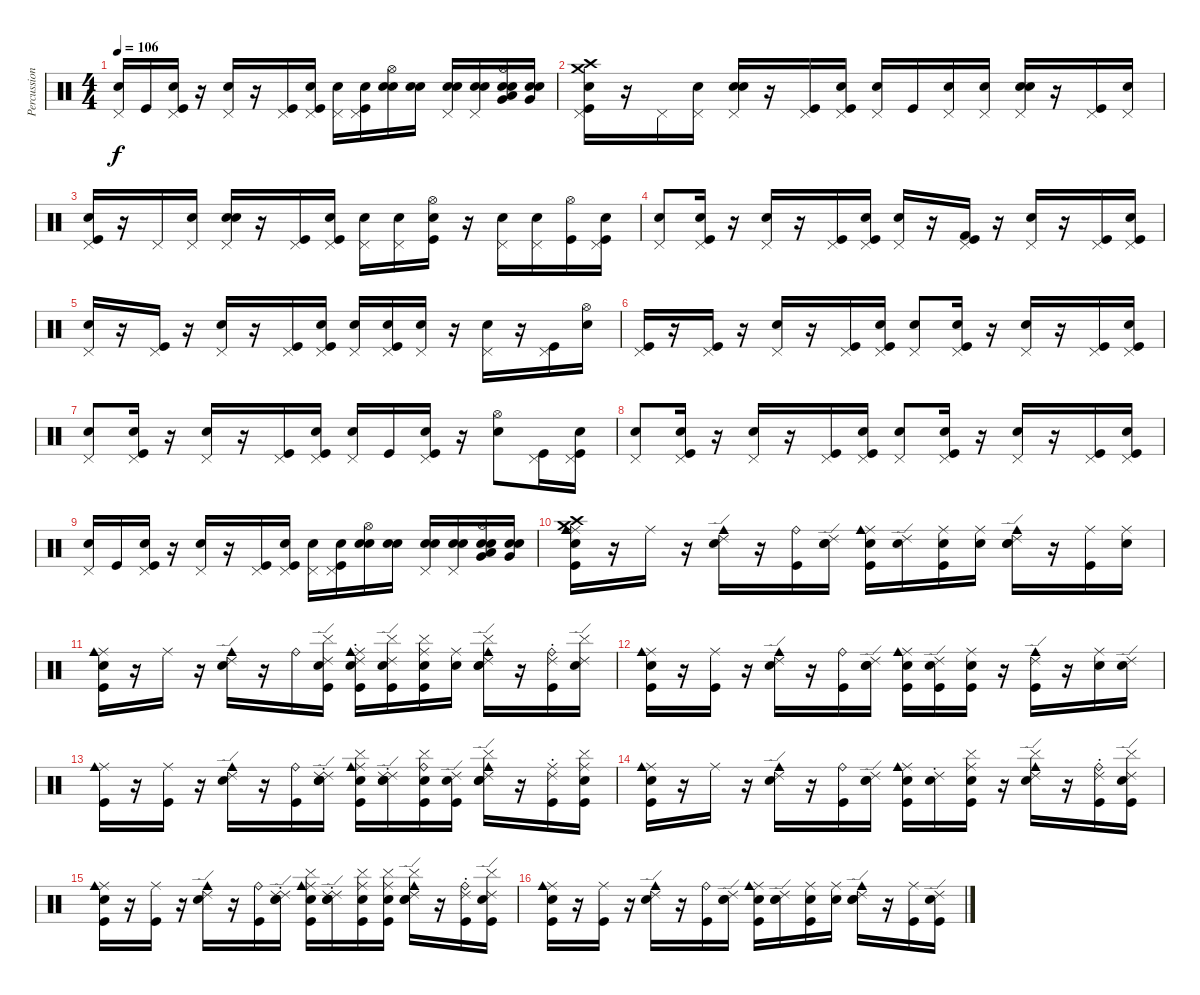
\track ("Percussions (Zaac)" "Percussion") {instrument percussion}
\staff {score}
\articulation defaults
\ts (4 4)
\tempo 106
\clef neutral
\ks c
("Snare (hit)" "Pedal Hi-Hat (hit)").16{dy f} "Kick (hit)".16 ("Snare (hit)" "Kick (hit)" "Pedal Hi-Hat (hit)").16 r.16 ("Electric Snare (hit)" "Pedal Hi-Hat (hit)").16 r.16 ("Kick (hit)" "Pedal Hi-Hat (hit)").16 ("Snare (hit)" "Kick (hit)" "Pedal Hi-Hat (hit)").16 ("Snare (hit)" "Pedal Hi-Hat (hit)").16 ("Snare (hit)" "Kick (hit)" "Pedal Hi-Hat (hit)").16 ("Snare (hit)" "Electric Snare (hit)" "Hi-Hat (open)").16 ("Snare (hit)" "Electric Snare (hit)").16 ("Snare (hit)" "Electric Snare (hit)" "Pedal Hi-Hat (hit)").16 ("Snare (hit)" "Electric Snare (hit)" "Pedal Hi-Hat (hit)").16 ("Snare (hit)" "Electric Snare (hit)" "Very Low Tom (hit)" "Low Tom (hit)" "Hi-Hat (open)").16 ("Snare (hit)" "Electric Snare (hit)" "Very Low Tom (hit)").16 |
("Snare (hit)" "Kick (hit)" "Pedal Hi-Hat (hit)" "Crash high (hit)" "Crash medium (hit)").16 r.16 "Pedal Hi-Hat (hit)".16 ("Snare (hit)" "Pedal Hi-Hat (hit)").16 ("Snare (hit)" "Electric Snare (hit)" "Pedal Hi-Hat (hit)").16 r.16 ("Kick (hit)" "Pedal Hi-Hat (hit)").16 ("Snare (hit)" "Kick (hit)" "Pedal Hi-Hat (hit)").16 ("Snare (hit)" "Pedal Hi-Hat (hit)").16 "Kick (hit)".16 ("Snare (hit)" "Pedal Hi-Hat (hit)").16 ("Snare (hit)" "Pedal Hi-Hat (hit)").16 ("Snare (hit)" "Electric Snare (hit)" "Pedal Hi-Hat (hit)").16 r.16 ("Kick (hit)" "Pedal Hi-Hat (hit)").16 ("Snare (hit)" "Pedal Hi-Hat (hit)").16 |
("Snare (hit)" "Kick (hit)" "Pedal Hi-Hat (hit)").16 r.16 "Pedal Hi-Hat (hit)".16 ("Snare (hit)" "Pedal Hi-Hat (hit)").16 ("Snare (hit)" "Electric Snare (hit)" "Pedal Hi-Hat (hit)").16 r.16 ("Kick (hit)" "Pedal Hi-Hat (hit)").16 ("Snare (hit)" "Kick (hit)" "Pedal Hi-Hat (hit)").16 ("Snare (hit)" "Pedal Hi-Hat (hit)").16 ("Snare (hit)" "Pedal Hi-Hat (hit)").16 ("Snare (hit)" "Kick (hit)" "Hi-Hat (open)").16 r.16 ("Electric Snare (hit)" "Pedal Hi-Hat (hit)").16 ("Snare (hit)" "Pedal Hi-Hat (hit)").16 ("Kick (hit)" "Hi-Hat (open)").16 ("Snare (hit)" "Kick (hit)" "Pedal Hi-Hat (hit)").16 |
("Snare (hit)" "Pedal Hi-Hat (hit)").8 ("Snare (hit)" "Kick (hit)" "Pedal Hi-Hat (hit)").16 r.16 ("Electric Snare (hit)" "Pedal Hi-Hat (hit)").16 r.16 ("Kick (hit)" "Pedal Hi-Hat (hit)").16 ("Snare (hit)" "Kick (hit)" "Pedal Hi-Hat (hit)").16 ("Snare (hit)" "Pedal Hi-Hat (hit)").16 r.16 ("Kick (hit)" "Kick (hit) 2" "Pedal Hi-Hat (hit)").16 r.16 ("Electric Snare (hit)" "Pedal Hi-Hat (hit)").16 r.16 ("Kick (hit)" "Pedal Hi-Hat (hit)").16 ("Snare (hit)" "Kick (hit)" "Pedal Hi-Hat (hit)").16 |
("Snare (hit)" "Pedal Hi-Hat (hit)").16 r.16 ("Kick (hit)" "Pedal Hi-Hat (hit)").16 r.16 ("Electric Snare (hit)" "Pedal Hi-Hat (hit)").16 r.16 ("Kick (hit)" "Pedal Hi-Hat (hit)").16 ("Snare (hit)" "Kick (hit)" "Pedal Hi-Hat (hit)").16 ("Snare (hit)" "Pedal Hi-Hat (hit)").16 ("Snare (hit)" "Kick (hit)" "Pedal Hi-Hat (hit)").16 ("Snare (hit)" "Pedal Hi-Hat (hit)").16 r.16 ("Electric Snare (hit)" "Pedal Hi-Hat (hit)").16 r.16 ("Kick (hit)" "Pedal Hi-Hat (hit)").16 ("Snare (hit)" "Hi-Hat (open)").16 |
("Kick (hit)" "Pedal Hi-Hat (hit)").16 r.16 ("Kick (hit)" "Pedal Hi-Hat (hit)").16 r.16 ("Electric Snare (hit)" "Pedal Hi-Hat (hit)").16 r.16 ("Kick (hit)" "Pedal Hi-Hat (hit)").16 ("Snare (hit)" "Kick (hit)" "Pedal Hi-Hat (hit)").16 ("Snare (hit)" "Pedal Hi-Hat (hit)").8 ("Snare (hit)" "Kick (hit)" "Pedal Hi-Hat (hit)").16 r.16 ("Electric Snare (hit)" "Pedal Hi-Hat (hit)").16 r.16 ("Kick (hit)" "Pedal Hi-Hat (hit)").16 ("Snare (hit)" "Kick (hit)" "Pedal Hi-Hat (hit)").16 |
("Snare (hit)" "Pedal Hi-Hat (hit)").8 ("Snare (hit)" "Kick (hit)" "Pedal Hi-Hat (hit)").16 r.16 ("Electric Snare (hit)" "Pedal Hi-Hat (hit)").16 r.16 ("Kick (hit)" "Pedal Hi-Hat (hit)").16 ("Snare (hit)" "Kick (hit)" "Pedal Hi-Hat (hit)").16 ("Snare (hit)" "Pedal Hi-Hat (hit)").16 "Kick (hit)".16 ("Snare (hit)" "Kick (hit)" "Pedal Hi-Hat (hit)").16 r.16 ("Electric Snare (hit)" "Hi-Hat (open)").8 ("Kick (hit)" "Pedal Hi-Hat (hit)").16 ("Snare (hit)" "Kick (hit)" "Pedal Hi-Hat (hit)").16 |
("Snare (hit)" "Pedal Hi-Hat (hit)").8 ("Snare (hit)" "Kick (hit)" "Pedal Hi-Hat (hit)").16 r.16 ("Electric Snare (hit)" "Pedal Hi-Hat (hit)").16 r.16 ("Kick (hit)" "Pedal Hi-Hat (hit)").16 ("Snare (hit)" "Kick (hit)" "Pedal Hi-Hat (hit)").16 ("Snare (hit)" "Pedal Hi-Hat (hit)").8 ("Snare (hit)" "Kick (hit)" "Pedal Hi-Hat (hit)").16 r.16 ("Electric Snare (hit)" "Pedal Hi-Hat (hit)").16 r.16 ("Kick (hit)" "Pedal Hi-Hat (hit)").16 ("Snare (hit)" "Kick (hit)" "Pedal Hi-Hat (hit)").16 |
("Snare (hit)" "Pedal Hi-Hat (hit)").16 "Kick (hit)".16 ("Snare (hit)" "Kick (hit)" "Pedal Hi-Hat (hit)").16 r.16 ("Electric Snare (hit)" "Pedal Hi-Hat (hit)").16 r.16 ("Kick (hit)" "Pedal Hi-Hat (hit)").16 ("Snare (hit)" "Kick (hit)" "Pedal Hi-Hat (hit)").16 ("Snare (hit)" "Pedal Hi-Hat (hit)").16 ("Snare (hit)" "Kick (hit)" "Pedal Hi-Hat (hit)").16 ("Snare (hit)" "Electric Snare (hit)" "Hi-Hat (open)").16 ("Snare (hit)" "Electric Snare (hit)").16 ("Snare (hit)" "Electric Snare (hit)" "Pedal Hi-Hat (hit)").16 ("Snare (hit)" "Electric Snare (hit)" "Pedal Hi-Hat (hit)").16 ("Snare (hit)" "Electric Snare (hit)" "Very Low Tom (hit)" "Low Tom (hit)" "Hi-Hat (open)").16 ("Snare (hit)" "Electric Snare (hit)" "Very Low Tom (hit)").16 |
("Snare (hit)" "Kick (hit)" "Crash high (hit)" "Ride (middle)" "Cowbell medium (hit)" "Crash medium (hit)").16{volume 8} r.16 "Ride (middle)".16 r.16 ("Electric Snare (hit)" "Cowbell medium (hit)" "Ride (edge) 2").16 r.16 ("Kick (hit)" "Ride (bell)").16 ("Snare (hit)" "Electric Snare (hit)" "Ride (edge) 2").16 ("Snare (hit)" "Kick (hit)" "Ride (middle)" "Cowbell medium (hit)").16 ("Snare (hit)" "Ride (edge) 2").16 ("Snare (hit)" "Kick (hit)" "Ride (middle)").16 ("Snare (hit)" "Ride (middle)").16 ("Snare (hit)" "Electric Snare (hit)" "Cowbell medium (hit)" "Ride (edge) 2").16 r.16 ("Kick (hit)" "Ride (middle)").16 ("Snare (hit)" "Ride (middle)").16 |
("Snare (hit)" "Kick (hit)" "Ride (middle)" "Cowbell medium (hit)").16 r.16 "Ride (middle)".16 r.16 ("Electric Snare (hit)" "Cowbell medium (hit)" "Ride (edge) 2").16 r.16 "Ride (bell)".16 ("Snare (hit)" "Cymbal (hit)" "Kick (hit)" "Ride (edge) 2").16 ("Snare (hit)" "Ride (choke) 2" "Kick (hit)" "Ride (middle)" "Cowbell medium (hit)").16 ("Snare (hit)" "Cymbal (hit)" "Kick (hit)" "Ride (edge) 2").16 ("Snare (hit)" "Cymbal (hit)" "Kick (hit)" "Ride (middle)").16 ("Snare (hit)" "Ride (middle)").16 ("Snare (hit)" "Cymbal (hit)" "Electric Snare (hit)" "Cowbell medium (hit)" "Ride (edge) 2").16 r.16 ("Ride (choke) 2" "Kick (hit)" "Ride (bell)").16 ("Snare (hit)" "Cymbal (hit)" "Ride (edge) 2").16 |
("Snare (hit)" "Kick (hit)" "Ride (middle)" "Cowbell medium (hit)").16 r.16 ("Kick (hit)" "Ride (middle)").16 r.16 ("Electric Snare (hit)" "Cowbell medium (hit)" "Ride (edge) 2").16 r.16 ("Kick (hit)" "Ride (bell)").16 ("Snare (hit)" "Electric Snare (hit)" "Ride (edge) 2").16 ("Snare (hit)" "Kick (hit)" "Ride (middle)" "Cowbell medium (hit)").16 ("Snare (hit)" "Kick (hit)" "Ride (edge) 2").16 ("Snare (hit)" "Kick (hit)" "Ride (middle)").16 r.16 ("Kick (hit)" "Cowbell medium (hit)" "Ride (edge) 2").16 r.16 ("Electric Snare (hit)" "Ride (middle)").16 ("Snare (hit)" "Ride (edge) 2").16 |
("Kick (hit)" "Ride (middle)" "Cowbell medium (hit)").16 r.16 ("Kick (hit)" "Ride (middle)").16 r.16 ("Electric Snare (hit)" "Cowbell medium (hit)" "Ride (edge) 2").16 r.16 ("Kick (hit)" "Ride (bell)").16 ("Snare (hit)" "Ride (choke) 2" "Electric Snare (hit)" "Ride (edge) 2").16 ("Snare (hit)" "Cymbal (hit)" "Kick (hit)" "Ride (middle)" "Cowbell medium (hit)").16 ("Snare (hit)" "Ride (choke) 2" "Electric Snare (hit)" "Ride (edge) 2").16 ("Snare (hit)" "Cymbal (hit)" "Kick (hit)" "Ride (bell)").16 ("Snare (hit)" "Kick (hit)" "Ride (edge) 2").16 ("Snare (hit)" "Cymbal (hit)" "Electric Snare (hit)" "Cowbell medium (hit)" "Ride (edge) 2").16 r.16 ("Ride (choke) 2" "Kick (hit)" "Ride (middle)").16 ("Snare (hit)" "Cymbal (hit)" "Kick (hit)" "Ride (middle)").16 |
("Snare (hit)" "Kick (hit)" "Ride (middle)" "Cowbell medium (hit)").16 r.16 "Ride (middle)".16 r.16 ("Electric Snare (hit)" "Cowbell medium (hit)" "Ride (edge) 2").16 r.16 ("Kick (hit)" "Ride (bell)").16 ("Snare (hit)" "Electric Snare (hit)" "Ride (edge) 2").16 ("Snare (hit)" "Kick (hit)" "Ride (middle)" "Cowbell medium (hit)").16 ("Snare (hit)" "Ride (choke) 2").16 ("Snare (hit)" "Cymbal (hit)" "Kick (hit)" "Ride (middle)").16 r.16 ("Cymbal (hit)" "Electric Snare (hit)" "Cowbell medium (hit)" "Ride (edge) 2").16 r.16 ("Ride (choke) 2" "Kick (hit)" "Ride (bell)").16 ("Snare (hit)" "Cymbal (hit)" "Kick (hit)" "Ride (edge) 2").16 |
("Snare (hit)" "Kick (hit)" "Ride (middle)" "Cowbell medium (hit)").16 r.16 ("Kick (hit)" "Ride (middle)").16 r.16 ("Electric Snare (hit)" "Cowbell medium (hit)" "Ride (edge) 2").16 r.16 ("Kick (hit)" "Ride (bell)").16 ("Snare (hit)" "Ride (choke) 2" "Electric Snare (hit)" "Ride (edge) 2").16 ("Snare (hit)" "Cymbal (hit)" "Kick (hit)" "Ride (middle)" "Cowbell medium (hit)").16 ("Snare (hit)" "Ride (choke) 2" "Electric Snare (hit)" "Ride (edge) 2").16 ("Snare (hit)" "Cymbal (hit)" "Kick (hit)" "Ride (middle)").16 ("Snare (hit)" "Cymbal (hit)" "Kick (hit)" "Ride (middle)").16 ("Snare (hit)" "Cymbal (hit)" "Electric Snare (hit)" "Cowbell medium (hit)" "Ride (edge) 2").16 r.16 ("Ride (choke) 2" "Kick (hit)" "Ride (bell)").16 ("Snare (hit)" "Cymbal (hit)" "Kick (hit)" "Ride (edge) 2").16 |
("Snare (hit)" "Kick (hit)" "Ride (middle)" "Cowbell medium (hit)").16 r.16 ("Kick (hit)" "Ride (middle)").16 r.16 ("Electric Snare (hit)" "Cowbell medium (hit)" "Ride (edge) 2").16 r.16 ("Kick (hit)" "Ride (bell)").16 ("Snare (hit)" "Electric Snare (hit)" "Ride (edge) 2").16 ("Snare (hit)" "Kick (hit)" "Ride (middle)" "Cowbell medium (hit)").16 ("Snare (hit)" "Electric Snare (hit)" "Ride (edge) 2").16 ("Snare (hit)" "Kick (hit)" "Ride (middle)").16 ("Snare (hit)" "Ride (middle)").16 ("Snare (hit)" "Electric Snare (hit)" "Cowbell medium (hit)" "Ride (edge) 2").16 r.16 ("Kick (hit)" "Ride (middle)").16 ("Snare (hit)" "Kick (hit)" "Ride (edge) 2").16
